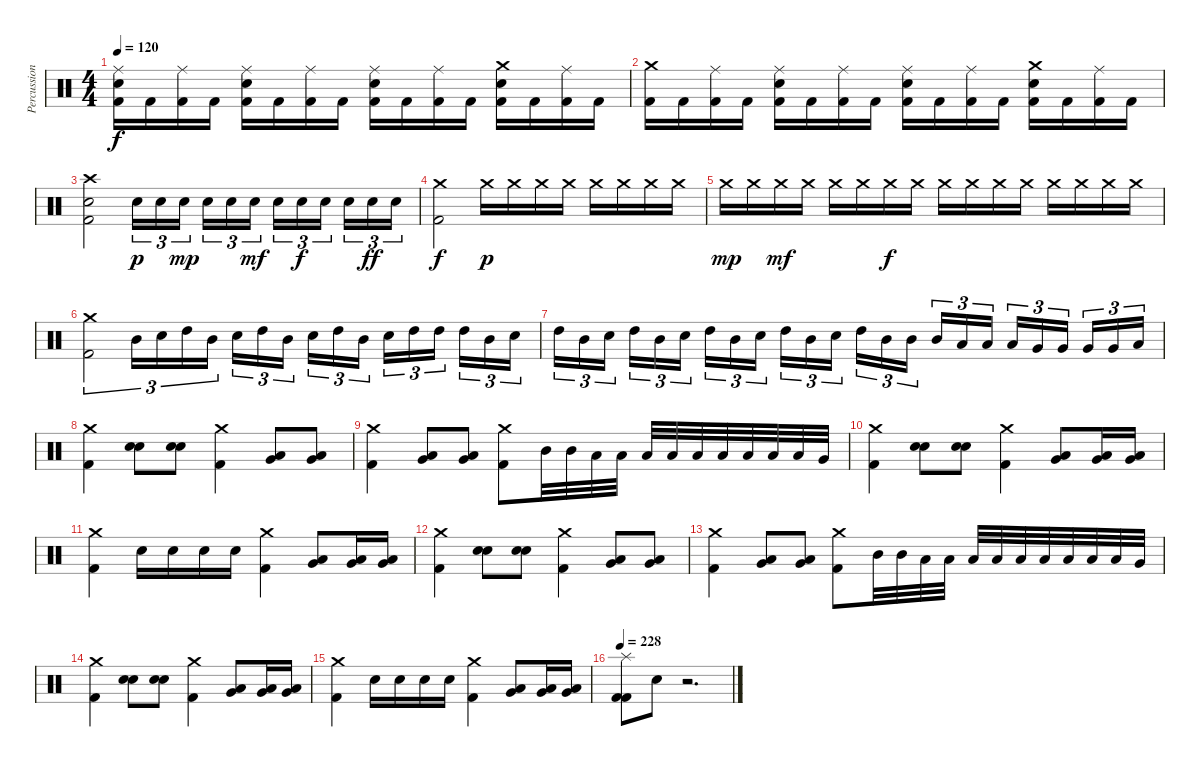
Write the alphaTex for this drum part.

\track ("Percussion" "Percussion") {instrument percussion}
\staff {score}
\articulation defaults
\ts (4 4)
\tempo 120
\clef neutral
\ks c
("Electric Snare (hit)" "Ride (middle)" "Kick (hit) 2").16{dy f} "Kick (hit) 2".16 ("Ride (middle)" "Kick (hit) 2").16 "Kick (hit) 2".16 ("Electric Snare (hit)" "Ride (middle)" "Kick (hit) 2").16 "Kick (hit) 2".16 ("Ride (middle)" "Kick (hit) 2").16 "Kick (hit) 2".16 ("Electric Snare (hit)" "Ride (middle)" "Kick (hit) 2").16 "Kick (hit) 2".16 ("Ride (middle)" "Kick (hit) 2").16 "Kick (hit) 2".16 ("Electric Snare (hit)" "Crash medium (hit)" "Kick (hit) 2").16 "Kick (hit) 2".16 ("Ride (middle)" "Kick (hit) 2").16 "Kick (hit) 2".16 |
("Crash medium (hit)" "Kick (hit) 2").16 "Kick (hit) 2".16 ("Ride (middle)" "Kick (hit) 2").16 "Kick (hit) 2".16 ("Electric Snare (hit)" "Ride (middle)" "Kick (hit) 2").16 "Kick (hit) 2".16 ("Ride (middle)" "Kick (hit) 2").16 "Kick (hit) 2".16 ("Electric Snare (hit)" "Ride (middle)" "Kick (hit) 2").16 "Kick (hit) 2".16 ("Ride (middle)" "Kick (hit) 2").16 "Kick (hit) 2".16 ("Electric Snare (hit)" "Crash medium (hit)" "Kick (hit) 2").16 "Kick (hit) 2".16 ("Ride (middle)" "Kick (hit) 2").16 "Kick (hit) 2".16 |
("Electric Snare (hit)" "Crash high (hit)" "Kick (hit) 2").2 "Electric Snare (hit)".16{tu (3 2) dy p} "Electric Snare (hit)".16{tu (3 2)} "Electric Snare (hit)".16{tu (3 2) dy mp} "Electric Snare (hit)".16{tu (3 2)} "Electric Snare (hit)".16{tu (3 2)} "Electric Snare (hit)".16{tu (3 2) dy mf} "Electric Snare (hit)".16{tu (3 2)} "Electric Snare (hit)".16{tu (3 2) dy f} "Electric Snare (hit)".16{tu (3 2)} "Electric Snare (hit)".16{tu (3 2)} "Electric Snare (hit)".16{tu (3 2) dy ff} "Electric Snare (hit)".16{tu (3 2)} |
("Kick (hit) 2" "Crash medium (hit)").2{dy f} "Crash medium (hit)".16{dy p} "Crash medium (hit)".16 "Crash medium (hit)".16 "Crash medium (hit)".16 "Crash medium (hit)".16 "Crash medium (hit)".16 "Crash medium (hit)".16 "Crash medium (hit)".16 |
"Crash medium (hit)".16{dy mp} "Crash medium (hit)".16 "Crash medium (hit)".16{dy mf} "Crash medium (hit)".16 "Crash medium (hit)".16 "Crash medium (hit)".16 "Crash medium (hit)".16{dy f} "Crash medium (hit)".16 "Crash medium (hit)".16 "Crash medium (hit)".16 "Crash medium (hit)".16 "Crash medium (hit)".16 "Crash medium (hit)".16 "Crash medium (hit)".16 "Crash medium (hit)".16 "Crash medium (hit)".16 |
("Kick (hit) 2" "Crash medium (hit)").2{tu (3 2)} "Mid Tom (hit)".16{tu (3 2)} "Electric Snare (hit)".16{tu (3 2)} "High Tom (hit)".16{tu (3 2)} "Mid Tom (hit)".16{tu (3 2)} "Electric Snare (hit)".16{tu (3 2)} "High Tom (hit)".16{tu (3 2)} "Mid Tom (hit)".16{tu (3 2)} "Electric Snare (hit)".16{tu (3 2)} "High Tom (hit)".16{tu (3 2)} "Mid Tom (hit)".16{tu (3 2)} "Electric Snare (hit)".16{tu (3 2)} "High Tom (hit)".16{tu (3 2)} "High Tom (hit)".16{tu (3 2)} "High Tom (hit)".16{tu (3 2)} "Mid Tom (hit)".16{tu (3 2)} "Electric Snare (hit)".16{tu (3 2)} |
"High Tom (hit)".16{tu (3 2)} "Mid Tom (hit)".16{tu (3 2)} "Electric Snare (hit)".16{tu (3 2)} "High Tom (hit)".16{tu (3 2)} "Mid Tom (hit)".16{tu (3 2)} "Electric Snare (hit)".16{tu (3 2)} "High Tom (hit)".16{tu (3 2)} "Mid Tom (hit)".16{tu (3 2)} "Electric Snare (hit)".16{tu (3 2)} "High Tom (hit)".16{tu (3 2)} "Mid Tom (hit)".16{tu (3 2)} "Electric Snare (hit)".16{tu (3 2)} "High Tom (hit)".16{tu (3 2)} "Mid Tom (hit)".16{tu (3 2)} "Mid Tom (hit)".16{tu (3 2)} "Mid Tom (hit)".16{tu (3 2)} "Low Tom (hit)".16{tu (3 2)} "Low Tom (hit)".16{tu (3 2)} "Low Tom (hit)".16{tu (3 2)} "Very Low Tom (hit)".16{tu (3 2)} "Very Low Tom (hit)".16{tu (3 2)} "Very Low Tom (hit)".16{tu (3 2)} "Very Low Tom (hit)".16{tu (3 2)} "Low Floor Tom (hit)".16{tu (3 2)} |
("Crash medium (hit)" "Kick (hit) 2").4 ("Electric Snare (hit)" "Electric Snare (hit)").8 ("Electric Snare (hit)" "Electric Snare (hit)").8 ("Crash medium (hit)" "Kick (hit) 2").4 ("Low Tom (hit)" "Very Low Tom (hit)").8 ("Low Tom (hit)" "Very Low Tom (hit)").8 |
("Crash medium (hit)" "Kick (hit) 2").4 ("Low Tom (hit)" "Very Low Tom (hit)").8 ("Low Tom (hit)" "Very Low Tom (hit)").8 ("Kick (hit) 2" "Crash medium (hit)").8 "Mid Tom (hit)".32 "Mid Tom (hit)".32 "Low Tom (hit)".32 "Low Tom (hit)".32 "Low Tom (hit)".32 "Low Tom (hit)".32 "Low Tom (hit)".32 "Low Tom (hit)".32 "Low Tom (hit)".32 "Low Tom (hit)".32 "Low Tom (hit)".32 "Very Low Tom (hit)".32 |
("Crash medium (hit)" "Kick (hit) 2").4 ("Electric Snare (hit)" "Electric Snare (hit)").8 ("Electric Snare (hit)" "Electric Snare (hit)").8 ("Crash medium (hit)" "Kick (hit) 2").4 ("Low Tom (hit)" "Very Low Tom (hit)").8 ("Low Tom (hit)" "Very Low Tom (hit)").16 ("Low Tom (hit)" "Very Low Tom (hit)").16 |
("Crash medium (hit)" "Kick (hit) 2").4 "Electric Snare (hit)".16 "Electric Snare (hit)".16 "Electric Snare (hit)".16 "Electric Snare (hit)".16 ("Kick (hit) 2" "Crash medium (hit)").4 ("Low Tom (hit)" "Very Low Tom (hit)").8 ("Low Tom (hit)" "Very Low Tom (hit)").16 ("Low Tom (hit)" "Very Low Tom (hit)").16 |
("Crash medium (hit)" "Kick (hit) 2").4 ("Electric Snare (hit)" "Electric Snare (hit)").8 ("Electric Snare (hit)" "Electric Snare (hit)").8 ("Crash medium (hit)" "Kick (hit) 2").4 ("Low Tom (hit)" "Very Low Tom (hit)").8 ("Low Tom (hit)" "Very Low Tom (hit)").8 |
("Crash medium (hit)" "Kick (hit) 2").4 ("Low Tom (hit)" "Very Low Tom (hit)").8 ("Low Tom (hit)" "Very Low Tom (hit)").8 ("Kick (hit) 2" "Crash medium (hit)").8 "Mid Tom (hit)".32 "Mid Tom (hit)".32 "Low Tom (hit)".32 "Low Tom (hit)".32 "Low Tom (hit)".32 "Low Tom (hit)".32 "Low Tom (hit)".32 "Low Tom (hit)".32 "Low Tom (hit)".32 "Low Tom (hit)".32 "Low Tom (hit)".32 "Very Low Tom (hit)".32 |
("Crash medium (hit)" "Kick (hit) 2").4 ("Electric Snare (hit)" "Electric Snare (hit)").8 ("Electric Snare (hit)" "Electric Snare (hit)").8 ("Crash medium (hit)" "Kick (hit) 2").4 ("Low Tom (hit)" "Very Low Tom (hit)").8 ("Low Tom (hit)" "Very Low Tom (hit)").16 ("Low Tom (hit)" "Very Low Tom (hit)").16 |
("Crash medium (hit)" "Kick (hit) 2").4 "Electric Snare (hit)".16 "Electric Snare (hit)".16 "Electric Snare (hit)".16 "Electric Snare (hit)".16 ("Kick (hit) 2" "Crash medium (hit)").4 ("Low Tom (hit)" "Very Low Tom (hit)").8 ("Low Tom (hit)" "Very Low Tom (hit)").16 ("Low Tom (hit)" "Very Low Tom (hit)").16 |
\tempo 228
("Kick (hit) 2" "Splash (hit)" "Kick (hit) 2").8 "Snare (hit)"{x}.8 r.2{d}
